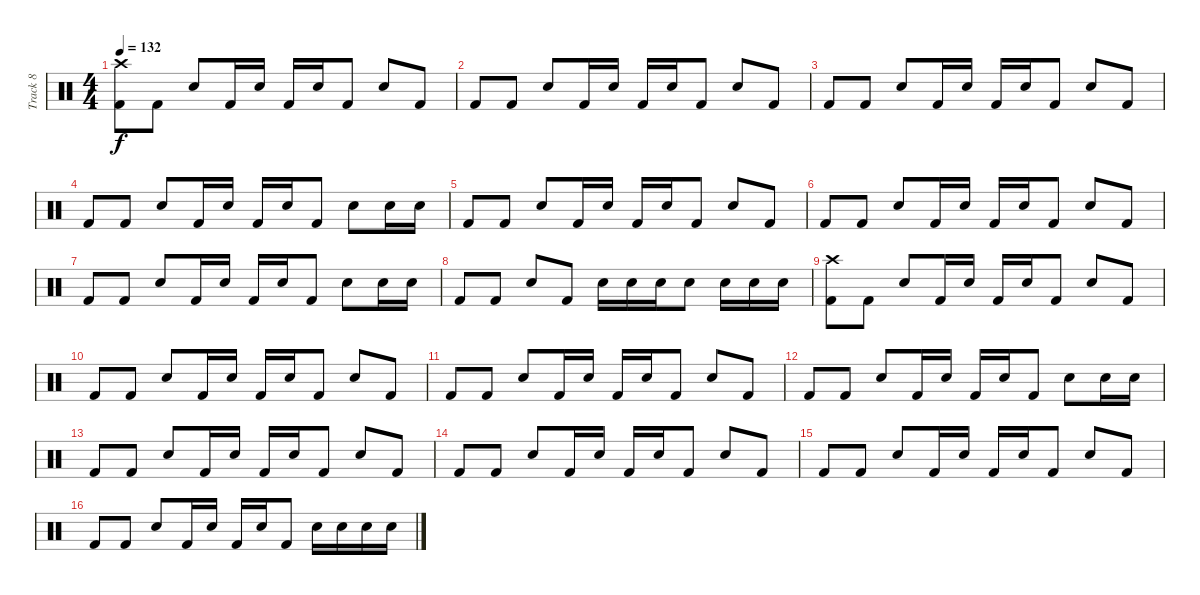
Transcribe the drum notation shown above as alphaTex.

\track ("Track 8" "Track 8") {instrument percussion}
\staff {score}
\articulation defaults
\ts (4 4)
\tempo 132
\clef neutral
\ks c
("Kick (hit) 2" "Crash high (hit)").8{dy f} "Kick (hit) 2".8 "Snare (hit) 2".8 "Kick (hit) 2".16 "Snare (hit) 2".16 "Kick (hit) 2".16 "Snare (hit) 2".16 "Kick (hit) 2".8 "Snare (hit) 2".8 "Kick (hit) 2".8 |
"Kick (hit) 2".8 "Kick (hit) 2".8 "Snare (hit) 2".8 "Kick (hit) 2".16 "Snare (hit) 2".16 "Kick (hit) 2".16 "Snare (hit) 2".16 "Kick (hit) 2".8 "Snare (hit) 2".8 "Kick (hit) 2".8 |
"Kick (hit) 2".8 "Kick (hit) 2".8 "Snare (hit) 2".8 "Kick (hit) 2".16 "Snare (hit) 2".16 "Kick (hit) 2".16 "Snare (hit) 2".16 "Kick (hit) 2".8 "Snare (hit) 2".8 "Kick (hit) 2".8 |
"Kick (hit) 2".8 "Kick (hit) 2".8 "Snare (hit) 2".8 "Kick (hit) 2".16 "Snare (hit) 2".16 "Kick (hit) 2".16 "Snare (hit) 2".16 "Kick (hit) 2".8 "Snare (hit) 2".8 "Snare (hit) 2".16 "Snare (hit) 2".16 |
"Kick (hit) 2".8 "Kick (hit) 2".8 "Snare (hit) 2".8 "Kick (hit) 2".16 "Snare (hit) 2".16 "Kick (hit) 2".16 "Snare (hit) 2".16 "Kick (hit) 2".8 "Snare (hit) 2".8 "Kick (hit) 2".8 |
"Kick (hit) 2".8 "Kick (hit) 2".8 "Snare (hit) 2".8 "Kick (hit) 2".16 "Snare (hit) 2".16 "Kick (hit) 2".16 "Snare (hit) 2".16 "Kick (hit) 2".8 "Snare (hit) 2".8 "Kick (hit) 2".8 |
"Kick (hit) 2".8 "Kick (hit) 2".8 "Snare (hit) 2".8 "Kick (hit) 2".16 "Snare (hit) 2".16 "Kick (hit) 2".16 "Snare (hit) 2".16 "Kick (hit) 2".8 "Snare (hit) 2".8 "Snare (hit) 2".16 "Snare (hit) 2".16 |
"Kick (hit) 2".8 "Kick (hit) 2".8 "Snare (hit) 2".8 "Kick (hit) 2".8 "Snare (hit) 2".16 "Snare (hit) 2".16 "Snare (hit) 2".16 "Snare (hit) 2".8 "Snare (hit) 2".16 "Snare (hit) 2".16 "Snare (hit) 2".16 |
("Kick (hit) 2" "Crash high (hit)").8 "Kick (hit) 2".8 "Snare (hit) 2".8 "Kick (hit) 2".16 "Snare (hit) 2".16 "Kick (hit) 2".16 "Snare (hit) 2".16 "Kick (hit) 2".8 "Snare (hit) 2".8 "Kick (hit) 2".8 |
"Kick (hit) 2".8 "Kick (hit) 2".8 "Snare (hit) 2".8 "Kick (hit) 2".16 "Snare (hit) 2".16 "Kick (hit) 2".16 "Snare (hit) 2".16 "Kick (hit) 2".8 "Snare (hit) 2".8 "Kick (hit) 2".8 |
"Kick (hit) 2".8 "Kick (hit) 2".8 "Snare (hit) 2".8 "Kick (hit) 2".16 "Snare (hit) 2".16 "Kick (hit) 2".16 "Snare (hit) 2".16 "Kick (hit) 2".8 "Snare (hit) 2".8 "Kick (hit) 2".8 |
"Kick (hit) 2".8 "Kick (hit) 2".8 "Snare (hit) 2".8 "Kick (hit) 2".16 "Snare (hit) 2".16 "Kick (hit) 2".16 "Snare (hit) 2".16 "Kick (hit) 2".8 "Snare (hit) 2".8 "Snare (hit) 2".16 "Snare (hit) 2".16 |
"Kick (hit) 2".8 "Kick (hit) 2".8 "Snare (hit) 2".8 "Kick (hit) 2".16 "Snare (hit) 2".16 "Kick (hit) 2".16 "Snare (hit) 2".16 "Kick (hit) 2".8 "Snare (hit) 2".8 "Kick (hit) 2".8 |
"Kick (hit) 2".8 "Kick (hit) 2".8 "Snare (hit) 2".8 "Kick (hit) 2".16 "Snare (hit) 2".16 "Kick (hit) 2".16 "Snare (hit) 2".16 "Kick (hit) 2".8 "Snare (hit) 2".8 "Kick (hit) 2".8 |
"Kick (hit) 2".8 "Kick (hit) 2".8 "Snare (hit) 2".8 "Kick (hit) 2".16 "Snare (hit) 2".16 "Kick (hit) 2".16 "Snare (hit) 2".16 "Kick (hit) 2".8 "Snare (hit) 2".8 "Kick (hit) 2".8 |
"Kick (hit) 2".8 "Kick (hit) 2".8 "Snare (hit) 2".8 "Kick (hit) 2".16 "Snare (hit) 2".16 "Kick (hit) 2".16 "Snare (hit) 2".16 "Kick (hit) 2".8 "Snare (hit) 2".16 "Snare (hit) 2".16 "Snare (hit) 2".16 "Snare (hit) 2".16
